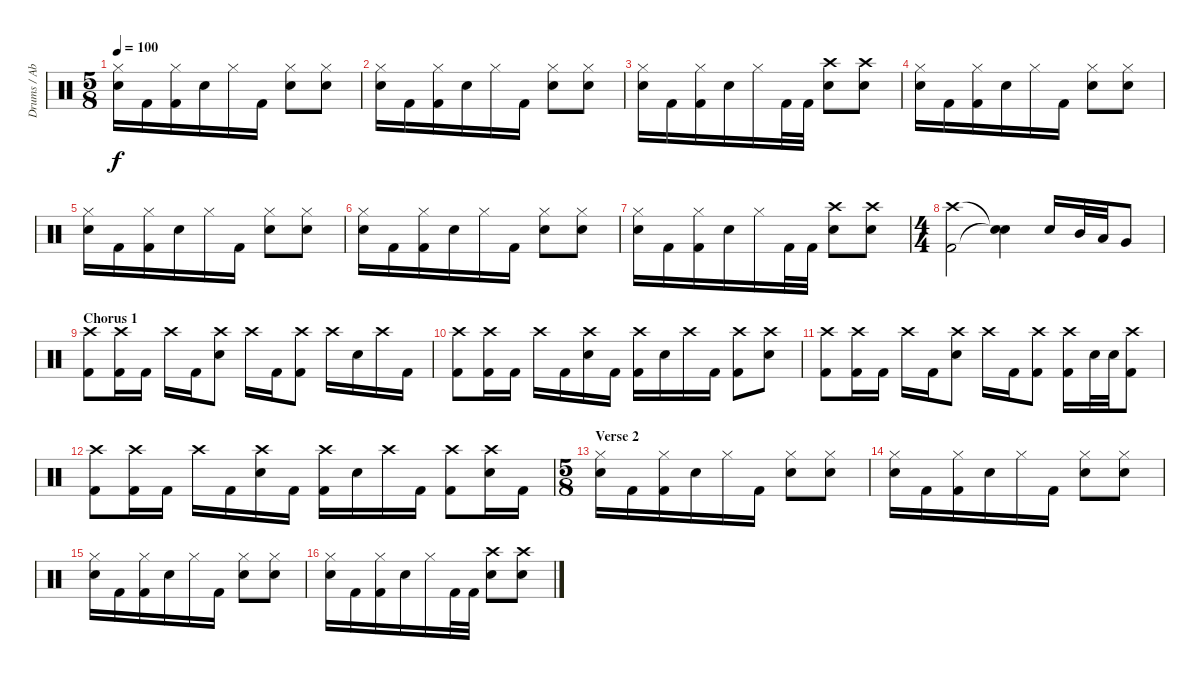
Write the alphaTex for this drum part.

\track ("Drums / Abe Cunningham" "Drums / Ab") {instrument percussion}
\staff {score}
\articulation defaults
\ts (5 8)
\tempo 100
\clef neutral
\ks c
("Hi-Hat (closed)" "Electric Snare (hit)").16{dy f} "Kick (hit) 2".16 ("Hi-Hat (closed)" "Kick (hit) 2").16 "Electric Snare (hit)".16 "Hi-Hat (closed)".16 "Kick (hit) 2".16 ("Hi-Hat (closed)" "Electric Snare (hit)").8 ("Hi-Hat (closed)" "Electric Snare (hit)").8 |
("Hi-Hat (closed)" "Electric Snare (hit)").16 "Kick (hit) 2".16 ("Hi-Hat (closed)" "Kick (hit) 2").16 "Electric Snare (hit)".16 "Hi-Hat (closed)".16 "Kick (hit) 2".16 ("Hi-Hat (closed)" "Electric Snare (hit)").8 ("Hi-Hat (closed)" "Electric Snare (hit)").8 |
("Hi-Hat (closed)" "Electric Snare (hit)").16 "Kick (hit) 2".16 ("Hi-Hat (closed)" "Kick (hit) 2").16 "Electric Snare (hit)".16 "Hi-Hat (closed)".16 "Kick (hit) 2".32 "Kick (hit) 2".32 ("Crash high (hit)" "Electric Snare (hit)").8 ("Crash high (hit)" "Electric Snare (hit)").8 |
("Hi-Hat (closed)" "Electric Snare (hit)").16 "Kick (hit) 2".16 ("Hi-Hat (closed)" "Kick (hit) 2").16 "Electric Snare (hit)".16 "Hi-Hat (closed)".16 "Kick (hit) 2".16 ("Hi-Hat (closed)" "Electric Snare (hit)").8 ("Hi-Hat (closed)" "Electric Snare (hit)").8 |
("Hi-Hat (closed)" "Electric Snare (hit)").16 "Kick (hit) 2".16 ("Hi-Hat (closed)" "Kick (hit) 2").16 "Electric Snare (hit)".16 "Hi-Hat (closed)".16 "Kick (hit) 2".16 ("Hi-Hat (closed)" "Electric Snare (hit)").8 ("Hi-Hat (closed)" "Electric Snare (hit)").8 |
("Hi-Hat (closed)" "Electric Snare (hit)").16 "Kick (hit) 2".16 ("Hi-Hat (closed)" "Kick (hit) 2").16 "Electric Snare (hit)".16 "Hi-Hat (closed)".16 "Kick (hit) 2".16 ("Hi-Hat (closed)" "Electric Snare (hit)").8 ("Hi-Hat (closed)" "Electric Snare (hit)").8 |
("Hi-Hat (closed)" "Electric Snare (hit)").16 "Kick (hit) 2".16 ("Hi-Hat (closed)" "Kick (hit) 2").16 "Electric Snare (hit)".16 "Hi-Hat (closed)".16 "Kick (hit) 2".32 "Kick (hit) 2".32 ("Crash high (hit)" "Electric Snare (hit)").8 ("Crash high (hit)" "Electric Snare (hit)").8 |
\ts (4 4)
("Crash high (hit)" "Kick (hit) 2").2 ("Snare (hit)"{t} "Snare (hit)"{t}).4 "Electric Snare (hit)".16 "Mid Tom (hit)".32 "Low Tom (hit)".32 "Very Low Tom (hit)".8 |
\section ("" "Chorus 1")
("Crash high (hit)" "Kick (hit) 2").8 ("Crash high (hit)" "Kick (hit) 2").16 "Kick (hit) 2".16 "Crash high (hit)".16 "Kick (hit) 2".16 ("Crash high (hit)" "Electric Snare (hit)").8 "Crash high (hit)".16 "Kick (hit) 2".16 ("Crash high (hit)" "Kick (hit) 2").8 "Crash high (hit)".16 "Electric Snare (hit)".16 "Crash high (hit)".16 "Kick (hit) 2".16 |
("Crash high (hit)" "Kick (hit) 2").8 ("Crash high (hit)" "Kick (hit) 2").16 "Kick (hit) 2".16 "Crash high (hit)".16 "Kick (hit) 2".16 ("Crash high (hit)" "Electric Snare (hit)").16 "Kick (hit) 2".16 ("Crash high (hit)" "Kick (hit) 2").16 "Electric Snare (hit)".16 "Crash high (hit)".16 "Kick (hit) 2".16 ("Crash high (hit)" "Kick (hit) 2").8 ("Crash high (hit)" "Electric Snare (hit)").8 |
("Crash high (hit)" "Kick (hit) 2").8 ("Crash high (hit)" "Kick (hit) 2").16 "Kick (hit) 2".16 "Crash high (hit)".16 "Kick (hit) 2".16 ("Crash high (hit)" "Electric Snare (hit)").8 "Crash high (hit)".16 "Kick (hit) 2".16 ("Crash high (hit)" "Kick (hit) 2").8 ("Crash high (hit)" "Kick (hit) 2").16 "Electric Snare (hit)".32 "Electric Snare (hit)".32 ("Crash high (hit)" "Kick (hit) 2").8 |
("Crash high (hit)" "Kick (hit) 2").8 ("Crash high (hit)" "Kick (hit) 2").16 "Kick (hit) 2".16 "Crash high (hit)".16 "Kick (hit) 2".16 ("Crash high (hit)" "Electric Snare (hit)").16 "Kick (hit) 2".16 ("Crash high (hit)" "Kick (hit) 2").16 "Electric Snare (hit)".16 "Crash high (hit)".16 "Kick (hit) 2".16 ("Crash high (hit)" "Kick (hit) 2").8 ("Crash high (hit)" "Electric Snare (hit)").16 "Kick (hit) 2".16 |
\ts (5 8)
\section ("" "Verse 2")
("Hi-Hat (closed)" "Electric Snare (hit)").16 "Kick (hit) 2".16 ("Hi-Hat (closed)" "Kick (hit) 2").16 "Electric Snare (hit)".16 "Hi-Hat (closed)".16 "Kick (hit) 2".16 ("Hi-Hat (closed)" "Electric Snare (hit)").8 ("Hi-Hat (closed)" "Electric Snare (hit)").8 |
("Hi-Hat (closed)" "Electric Snare (hit)").16 "Kick (hit) 2".16 ("Hi-Hat (closed)" "Kick (hit) 2").16 "Electric Snare (hit)".16 "Hi-Hat (closed)".16 "Kick (hit) 2".16 ("Hi-Hat (closed)" "Electric Snare (hit)").8 ("Hi-Hat (closed)" "Electric Snare (hit)").8 |
("Hi-Hat (closed)" "Electric Snare (hit)").16 "Kick (hit) 2".16 ("Hi-Hat (closed)" "Kick (hit) 2").16 "Electric Snare (hit)".16 "Hi-Hat (closed)".16 "Kick (hit) 2".16 ("Hi-Hat (closed)" "Electric Snare (hit)").8 ("Hi-Hat (closed)" "Electric Snare (hit)").8 |
("Hi-Hat (closed)" "Electric Snare (hit)").16 "Kick (hit) 2".16 ("Hi-Hat (closed)" "Kick (hit) 2").16 "Electric Snare (hit)".16 "Hi-Hat (closed)".16 "Kick (hit) 2".32 "Kick (hit) 2".32 ("Crash high (hit)" "Electric Snare (hit)").8 ("Crash high (hit)" "Electric Snare (hit)").8
